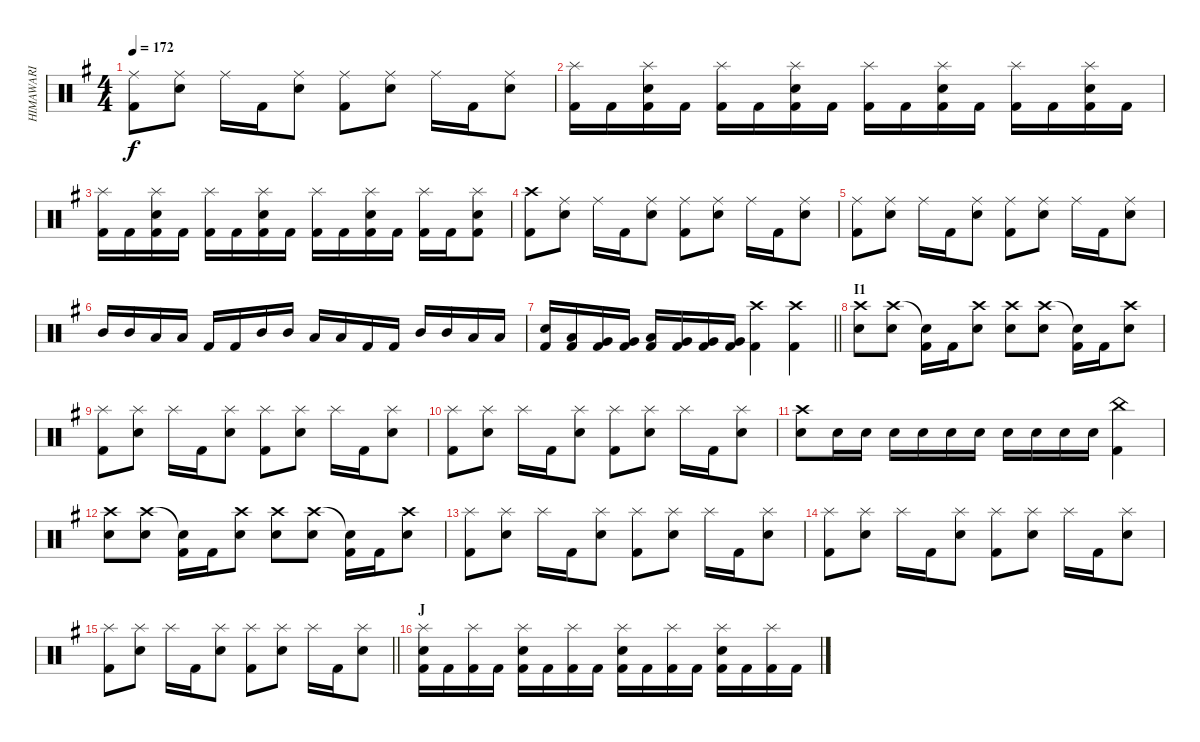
\track ("HIMAWARI" "HIMAWARI") {instrument percussion}
\staff {score}
\articulation defaults
\ts (4 4)
\tempo 172
\clef neutral
\ks g
("Ride (middle)" "Kick (hit) 2").8{dy f} ("Ride (middle)" "Snare (hit) 2").8 "Ride (middle)".16 "Kick (hit) 2".16 ("Ride (middle)" "Snare (hit) 2").8 ("Ride (middle)" "Kick (hit) 2").8 ("Ride (middle)" "Snare (hit) 2").8 "Ride (middle)".16 "Kick (hit) 2".16 ("Ride (middle)" "Snare (hit) 2").8 |
("Splash (hit)" "Kick (hit) 2").16 "Kick (hit) 2".16 ("Splash (hit)" "Kick (hit) 2" "Snare (hit) 2").16 "Kick (hit) 2".16 ("Splash (hit)" "Kick (hit) 2").16 "Kick (hit) 2".16 ("Splash (hit)" "Kick (hit) 2" "Snare (hit) 2").16 "Kick (hit) 2".16 ("Splash (hit)" "Kick (hit) 2").16 "Kick (hit) 2".16 ("Splash (hit)" "Kick (hit) 2" "Snare (hit) 2").16 "Kick (hit) 2".16 ("Splash (hit)" "Kick (hit) 2").16 "Kick (hit) 2".16 ("Splash (hit)" "Kick (hit) 2" "Snare (hit) 2").16 "Kick (hit) 2".16 |
("Splash (hit)" "Kick (hit) 2").16 "Kick (hit) 2".16 ("Splash (hit)" "Kick (hit) 2" "Snare (hit) 2").16 "Kick (hit) 2".16 ("Splash (hit)" "Kick (hit) 2").16 "Kick (hit) 2".16 ("Splash (hit)" "Kick (hit) 2" "Snare (hit) 2").16 "Kick (hit) 2".16 ("Splash (hit)" "Kick (hit) 2").16 "Kick (hit) 2".16 ("Splash (hit)" "Kick (hit) 2" "Snare (hit) 2").16 "Kick (hit) 2".16 ("Splash (hit)" "Kick (hit) 2").16 "Kick (hit) 2".16 ("Splash (hit)" "Kick (hit) 2" "Snare (hit) 2").8 |
("Crash high (hit)" "Kick (hit) 2").8 ("Ride (middle)" "Snare (hit) 2").8 "Ride (middle)".16 "Kick (hit) 2".16 ("Ride (middle)" "Snare (hit) 2").8 ("Ride (middle)" "Kick (hit) 2").8 ("Ride (middle)" "Snare (hit) 2").8 "Ride (middle)".16 "Kick (hit) 2".16 ("Ride (middle)" "Snare (hit) 2").8 |
("Ride (middle)" "Kick (hit) 2").8 ("Ride (middle)" "Snare (hit) 2").8 "Ride (middle)".16 "Kick (hit) 2".16 ("Ride (middle)" "Snare (hit) 2").8 ("Ride (middle)" "Kick (hit) 2").8 ("Ride (middle)" "Snare (hit) 2").8 "Ride (middle)".16 "Kick (hit) 2".16 ("Ride (middle)" "Snare (hit) 2").8 |
"Mid Tom (hit)".16 "Mid Tom (hit)".16 "Low Tom (hit)".16 "Low Tom (hit)".16 "Kick (hit) 2".16 "Kick (hit) 2".16 "Mid Tom (hit)".16 "Mid Tom (hit)".16 "Low Tom (hit)".16 "Low Tom (hit)".16 "Kick (hit) 2".16 "Kick (hit) 2".16 "Mid Tom (hit)".16 "Mid Tom (hit)".16 "Low Tom (hit)".16 "Low Tom (hit)".16 |
\barLineRight lightlight
("Snare (hit) 2" "Kick (hit) 2").16 ("Low Tom (hit)" "Kick (hit) 2").16 ("Very Low Tom (hit)" "Kick (hit) 2").16 ("Very Low Tom (hit)" "Kick (hit) 2").16 ("Low Tom (hit)" "Kick (hit) 2").16 ("Very Low Tom (hit)" "Kick (hit) 2").16 ("Very Low Tom (hit)" "Kick (hit) 2").16 ("Very Low Tom (hit)" "Kick (hit) 2").16 ("Crash high (hit)" "Kick (hit) 2").4 ("Crash high (hit)" "Kick (hit) 2").4 |
\section ("" "I1")
("Crash high (hit)" "Snare (hit) 2").8 ("Crash high (hit)" "Snare (hit) 2").8 ("Snare (hit)"{t} "Kick (hit) 2").16 "Kick (hit) 2".16 ("Crash high (hit)" "Snare (hit) 2").8 ("Crash high (hit)" "Snare (hit) 2").8 ("Crash high (hit)" "Snare (hit) 2").8 ("Snare (hit)"{t} "Kick (hit) 2").16 "Kick (hit) 2".16 ("Crash high (hit)" "Snare (hit) 2").8 |
("Splash (hit)" "Kick (hit) 2").8 ("Splash (hit)" "Snare (hit) 2").8 "Splash (hit)".16 "Kick (hit) 2".16 ("Splash (hit)" "Snare (hit) 2").8 ("Splash (hit)" "Kick (hit) 2").8 ("Splash (hit)" "Snare (hit) 2").8 "Splash (hit)".16 "Kick (hit) 2".16 ("Splash (hit)" "Snare (hit) 2").8 |
("Splash (hit)" "Kick (hit) 2").8 ("Splash (hit)" "Snare (hit) 2").8 "Splash (hit)".16 "Kick (hit) 2".16 ("Splash (hit)" "Snare (hit) 2").8 ("Splash (hit)" "Kick (hit) 2").8 ("Splash (hit)" "Snare (hit) 2").8 "Splash (hit)".16 "Kick (hit) 2".16 ("Splash (hit)" "Snare (hit) 2").8 |
("Crash high (hit)" "Snare (hit) 2").8 "Snare (hit) 2".16 "Snare (hit) 2".16 "Snare (hit) 2".16 "Snare (hit) 2".16 "Snare (hit) 2".16 "Snare (hit) 2".16 "Snare (hit) 2".16 "Snare (hit) 2".16 "Snare (hit) 2".16 "Snare (hit) 2".16 ("China (hit)" "Kick (hit) 2").4 |
("Crash high (hit)" "Snare (hit) 2").8 ("Crash high (hit)" "Snare (hit) 2").8 ("Snare (hit)"{t} "Kick (hit) 2").16 "Kick (hit) 2".16 ("Crash high (hit)" "Snare (hit) 2").8 ("Crash high (hit)" "Snare (hit) 2").8 ("Crash high (hit)" "Snare (hit) 2").8 ("Snare (hit)"{t} "Kick (hit) 2").16 "Kick (hit) 2".16 ("Crash high (hit)" "Snare (hit) 2").8 |
("Splash (hit)" "Kick (hit) 2").8 ("Splash (hit)" "Snare (hit) 2").8 "Splash (hit)".16 "Kick (hit) 2".16 ("Splash (hit)" "Snare (hit) 2").8 ("Splash (hit)" "Kick (hit) 2").8 ("Splash (hit)" "Snare (hit) 2").8 "Splash (hit)".16 "Kick (hit) 2".16 ("Splash (hit)" "Snare (hit) 2").8 |
("Splash (hit)" "Kick (hit) 2").8 ("Splash (hit)" "Snare (hit) 2").8 "Splash (hit)".16 "Kick (hit) 2".16 ("Splash (hit)" "Snare (hit) 2").8 ("Splash (hit)" "Kick (hit) 2").8 ("Splash (hit)" "Snare (hit) 2").8 "Splash (hit)".16 "Kick (hit) 2".16 ("Splash (hit)" "Snare (hit) 2").8 |
\barLineRight lightlight
("Splash (hit)" "Kick (hit) 2").8 ("Splash (hit)" "Snare (hit) 2").8 "Splash (hit)".16 "Kick (hit) 2".16 ("Splash (hit)" "Snare (hit) 2").8 ("Splash (hit)" "Kick (hit) 2").8 ("Splash (hit)" "Snare (hit) 2").8 "Splash (hit)".16 "Kick (hit) 2".16 ("Splash (hit)" "Snare (hit) 2").8 |
\section ("" "J")
("Splash (hit)" "Snare (hit) 2" "Kick (hit) 2").16 "Kick (hit) 2".16 ("Splash (hit)" "Kick (hit) 2").16 "Kick (hit) 2".16 ("Splash (hit)" "Snare (hit) 2" "Kick (hit) 2").16 "Kick (hit) 2".16 ("Splash (hit)" "Kick (hit) 2").16 "Kick (hit) 2".16 ("Splash (hit)" "Snare (hit) 2" "Kick (hit) 2").16 "Kick (hit) 2".16 ("Splash (hit)" "Kick (hit) 2").16 "Kick (hit) 2".16 ("Splash (hit)" "Snare (hit) 2" "Kick (hit) 2").16 "Kick (hit) 2".16 ("Splash (hit)" "Kick (hit) 2").16 "Kick (hit) 2".16
